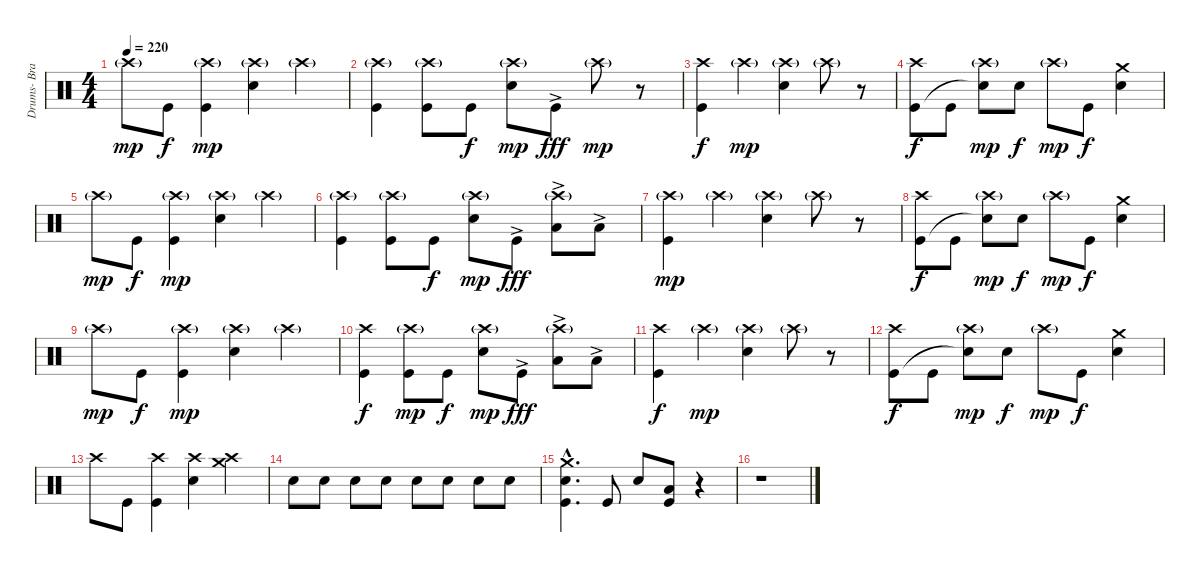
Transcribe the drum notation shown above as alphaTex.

\track ("Drums- Branden Steineckert" "Drums- Bra") {instrument percussion}
\staff {score}
\articulation defaults
\ts (4 4)
\tempo 220
\clef neutral
\ks c "Crash high (hit)"{g}.8{dy mp} "Kick (hit)".8{dy f}
("Crash high (hit)"{g} "Kick (hit)").4{dy mp} ("Crash high (hit)"{g} "Snare (hit) 2").4 "Crash high (hit)"{g}.4 |
("Crash high (hit)"{g} "Kick (hit)").4 ("Crash high (hit)"{g} "Kick (hit)").8 "Kick (hit)".8{dy f} ("Crash high (hit)"{g} "Snare (hit) 2").8{dy mp} "Kick (hit)"{ac}.8{dy fff} "Crash high (hit)"{g}.8{dy mp} r.8 |
("Crash high (hit)" "Kick (hit)").4{dy f} "Crash high (hit)"{g}.4{dy mp} ("Crash high (hit)"{g} "Snare (hit) 2").4 "Crash high (hit)"{g}.8 r.8 |
("Crash high (hit)" "Kick (hit)").8{dy f} "Kick (hit)".8 ("Crash high (hit)"{g} "Snare (hit)"{t}).8{dy mp} "Snare (hit) 2".8{dy f} "Crash high (hit)"{g}.8{dy mp} "Kick (hit)".8{dy f} ("Crash medium (hit)" "Snare (hit) 2").4 |
"Crash high (hit)"{g}.8{dy mp} "Kick (hit)".8{dy f} ("Crash high (hit)"{g} "Kick (hit)").4{dy mp} ("Crash high (hit)"{g} "Snare (hit) 2").4 "Crash high (hit)"{g}.4 |
("Crash high (hit)"{g} "Kick (hit)").4 ("Crash high (hit)"{g} "Kick (hit)").8 "Kick (hit)".8{dy f} ("Crash high (hit)"{g} "Snare (hit) 2").8{dy mp} "Kick (hit)"{ac}.8{dy fff} ("Crash high (hit)"{g} "Low Tom (hit)"{ac}).8 "Low Floor Tom (hit)"{ac}.8 |
("Crash high (hit)"{g} "Kick (hit)").4{dy mp} "Crash high (hit)"{g}.4 ("Crash high (hit)"{g} "Snare (hit) 2").4 "Crash high (hit)"{g}.8 r.8 |
("Crash high (hit)" "Kick (hit)").8{dy f} "Kick (hit)".8 ("Crash high (hit)"{g} "Snare (hit)"{t}).8{dy mp} "Snare (hit) 2".8{dy f} "Crash high (hit)"{g}.8{dy mp} "Kick (hit)".8{dy f} ("Crash medium (hit)" "Snare (hit) 2").4 |
"Crash high (hit)"{g}.8{dy mp} "Kick (hit)".8{dy f} ("Crash high (hit)"{g} "Kick (hit)").4{dy mp} ("Crash high (hit)"{g} "Snare (hit) 2").4 "Crash high (hit)"{g}.4 |
("Crash high (hit)" "Kick (hit)").4{dy f} ("Crash high (hit)"{g} "Kick (hit)").8{dy mp} "Kick (hit)".8{dy f} ("Crash high (hit)"{g} "Snare (hit) 2").8{dy mp} "Kick (hit)"{ac}.8{dy fff} ("Crash high (hit)"{g} "Low Tom (hit)"{ac}).8 "Low Floor Tom (hit)"{ac}.8 |
("Crash high (hit)" "Kick (hit)").4{dy f} "Crash high (hit)"{g}.4{dy mp} ("Crash high (hit)"{g} "Snare (hit) 2").4 "Crash high (hit)"{g}.8 r.8 |
("Crash high (hit)" "Kick (hit)").8{dy f} "Kick (hit)".8 ("Crash high (hit)"{g} "Snare (hit)"{t}).8{dy mp} "Snare (hit) 2".8{dy f} "Crash high (hit)"{g}.8{dy mp} "Kick (hit)".8{dy f} ("Crash medium (hit)" "Snare (hit) 2").4 |
"Crash high (hit)".8 "Kick (hit)".8 ("Crash high (hit)" "Kick (hit)").4 ("Crash high (hit)" "Snare (hit) 2").4 ("Crash medium (hit)" "Crash high (hit)").4 |
"Snare (hit) 2".8 "Snare (hit) 2".8 "Snare (hit) 2".8 "Snare (hit) 2".8 "Snare (hit) 2".8 "Snare (hit) 2".8 "Snare (hit) 2".8 "Snare (hit) 2".8 |
("Crash medium (hit)"{hac} "Snare (hit) 2"{hac} "Kick (hit)"{hac}).4{d} "Kick (hit)".8 "Snare (hit) 2".8 ("Low Floor Tom (hit)" "Kick (hit)").8 r.4 |
r.1
